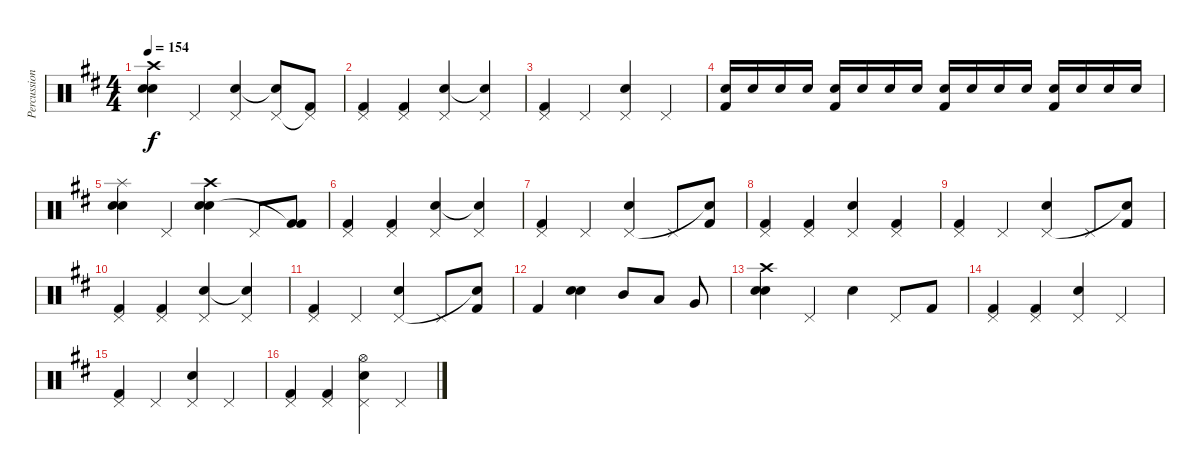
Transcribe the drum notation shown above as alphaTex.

\track ("Percussion" "Percussion") {instrument percussion}
\staff {score}
\articulation defaults
\ts (4 4)
\tempo 154
\clef neutral
\ks d
("Snare (hit) 2" "Electric Snare (hit)" "Crash high (hit)").4{dy f} "Pedal Hi-Hat (hit)".4 ("Electric Snare (hit)" "Pedal Hi-Hat (hit)").4 ("Snare (hit)"{t} "Pedal Hi-Hat (hit)").8 ("Kick (hit) 2" "Pedal Hi-Hat (hit)"{t}).8 |
("Kick (hit) 2" "Pedal Hi-Hat (hit)").4 ("Kick (hit) 2" "Pedal Hi-Hat (hit)").4 ("Electric Snare (hit)" "Pedal Hi-Hat (hit)").4 ("Snare (hit)"{t} "Pedal Hi-Hat (hit)").4 |
("Kick (hit) 2" "Pedal Hi-Hat (hit)").4 "Pedal Hi-Hat (hit)".4 ("Electric Snare (hit)" "Pedal Hi-Hat (hit)").4 "Pedal Hi-Hat (hit)".4 |
("Kick (hit) 2" "Electric Snare (hit)").16 "Electric Snare (hit)".16 "Electric Snare (hit)".16 "Electric Snare (hit)".16 ("Kick (hit) 2" "Electric Snare (hit)").16 "Electric Snare (hit)".16 "Electric Snare (hit)".16 "Electric Snare (hit)".16 ("Kick (hit) 2" "Electric Snare (hit)").16 "Electric Snare (hit)".16 "Electric Snare (hit)".16 "Electric Snare (hit)".16 ("Kick (hit) 2" "Electric Snare (hit)").16 "Electric Snare (hit)".16 "Electric Snare (hit)".16 "Electric Snare (hit)".16 |
("Electric Snare (hit)" "Electric Snare (hit)" "Splash (hit)").4 "Pedal Hi-Hat (hit)".4 ("Electric Snare (hit)" "Electric Snare (hit)" "Crash high (hit)").4 "Pedal Hi-Hat (hit)".8 ("Kick (hit) 2" "Kick (hit) 2"{t}).8 |
("Kick (hit) 2" "Pedal Hi-Hat (hit)").4 ("Kick (hit) 2" "Pedal Hi-Hat (hit)").4 ("Electric Snare (hit)" "Pedal Hi-Hat (hit)").4 ("Snare (hit)"{t} "Pedal Hi-Hat (hit)").4 |
("Kick (hit) 2" "Pedal Hi-Hat (hit)").4 "Pedal Hi-Hat (hit)".4 ("Electric Snare (hit)" "Pedal Hi-Hat (hit)").4 "Pedal Hi-Hat (hit)".8 ("Kick (hit) 2" "Snare (hit)"{t}).8 |
("Kick (hit) 2" "Pedal Hi-Hat (hit)").4 ("Kick (hit) 2" "Pedal Hi-Hat (hit)").4 ("Electric Snare (hit)" "Pedal Hi-Hat (hit)").4 ("Kick (hit) 2" "Pedal Hi-Hat (hit)").4 |
("Kick (hit) 2" "Pedal Hi-Hat (hit)").4 "Pedal Hi-Hat (hit)".4 ("Electric Snare (hit)" "Pedal Hi-Hat (hit)").4 "Pedal Hi-Hat (hit)".8 ("Kick (hit) 2" "Snare (hit)"{t}).8 |
("Kick (hit) 2" "Pedal Hi-Hat (hit)").4 ("Kick (hit) 2" "Pedal Hi-Hat (hit)").4 ("Electric Snare (hit)" "Pedal Hi-Hat (hit)").4 ("Snare (hit)"{t} "Pedal Hi-Hat (hit)").4 |
("Kick (hit) 2" "Pedal Hi-Hat (hit)").4 "Pedal Hi-Hat (hit)".4 ("Electric Snare (hit)" "Pedal Hi-Hat (hit)").4 "Pedal Hi-Hat (hit)".8 ("Kick (hit) 2" "Snare (hit)"{t}).8 |
"Kick (hit) 2".4 ("Electric Snare (hit)" "Electric Snare (hit)").4 "Mid Tom (hit)".8 "Low Tom (hit)".8 "Very Low Tom (hit)".8 |
("Snare (hit) 2" "Electric Snare (hit)" "Crash high (hit)").4 "Pedal Hi-Hat (hit)".4 "Electric Snare (hit)".4 "Pedal Hi-Hat (hit)".8 "Kick (hit) 2".8 |
("Kick (hit) 2" "Pedal Hi-Hat (hit)").4 ("Kick (hit) 2" "Pedal Hi-Hat (hit)").4 ("Electric Snare (hit)" "Pedal Hi-Hat (hit)").4 "Pedal Hi-Hat (hit)".4 |
("Kick (hit) 2" "Pedal Hi-Hat (hit)").4 "Pedal Hi-Hat (hit)".4 ("Electric Snare (hit)" "Pedal Hi-Hat (hit)").4 "Pedal Hi-Hat (hit)".4 |
("Kick (hit) 2" "Pedal Hi-Hat (hit)").4 ("Kick (hit) 2" "Pedal Hi-Hat (hit)").4 ("Electric Snare (hit)" "Pedal Hi-Hat (hit)" "Hi-Hat (open)").4 "Pedal Hi-Hat (hit)".4
